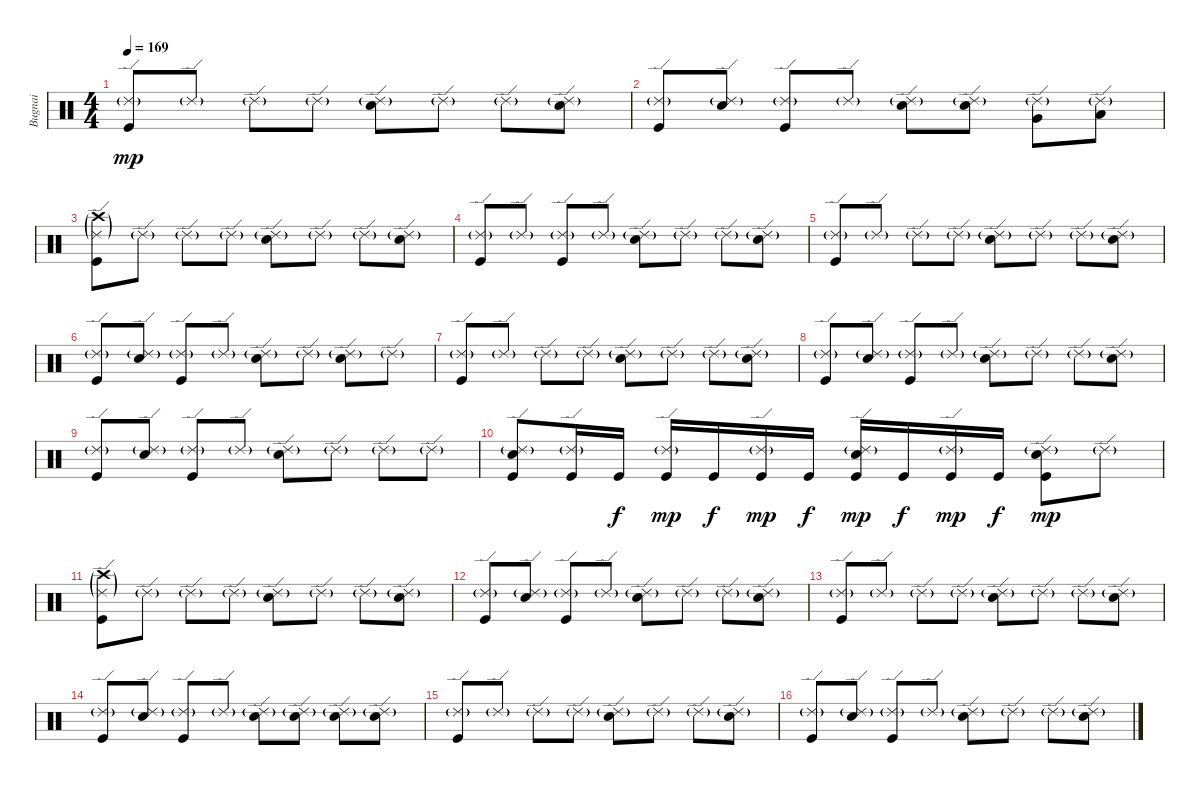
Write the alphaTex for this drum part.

\track ("Bugnai" "Bugnai") {instrument percussion}
\staff {score}
\articulation defaults
\ts (4 4)
\tempo 169
\clef neutral
\ks c
("Ride (edge) 2"{g} "Kick (hit)").8{dy mp} "Ride (edge) 2"{g}.8 "Ride (edge) 2"{g}.8 "Ride (edge) 2"{g}.8 ("Ride (edge) 2"{g} "Snare (hit) 2").8 "Ride (edge) 2"{g}.8 "Ride (edge) 2"{g}.8 ("Ride (edge) 2"{g} "Snare (hit) 2").8 |
("Ride (edge) 2"{g} "Kick (hit)").8 ("Ride (edge) 2"{g} "Snare (hit) 2").8 ("Ride (edge) 2"{g} "Kick (hit)").8 "Ride (edge) 2"{g}.8 ("Ride (edge) 2"{g} "Snare (hit) 2").8 ("Ride (edge) 2"{g} "Snare (hit) 2").8 ("Ride (edge) 2"{g} "Very Low Tom (hit)").8 ("Ride (edge) 2"{g} "Low Floor Tom (hit)").8 |
("Ride (edge) 2"{g} "Crash high (hit)"{g} "Kick (hit)").8 "Ride (edge) 2"{g}.8 "Ride (edge) 2"{g}.8 "Ride (edge) 2"{g}.8 ("Ride (edge) 2"{g} "Snare (hit) 2").8 "Ride (edge) 2"{g}.8 "Ride (edge) 2"{g}.8 ("Ride (edge) 2"{g} "Snare (hit) 2").8 |
("Ride (edge) 2"{g} "Kick (hit)").8 "Ride (edge) 2"{g}.8 ("Ride (edge) 2"{g} "Kick (hit)").8 "Ride (edge) 2"{g}.8 ("Ride (edge) 2"{g} "Snare (hit) 2").8 "Ride (edge) 2"{g}.8 "Ride (edge) 2"{g}.8 ("Ride (edge) 2"{g} "Snare (hit) 2").8 |
("Ride (edge) 2"{g} "Kick (hit)").8 "Ride (edge) 2"{g}.8 "Ride (edge) 2"{g}.8 "Ride (edge) 2"{g}.8 ("Ride (edge) 2"{g} "Snare (hit) 2").8 "Ride (edge) 2"{g}.8 "Ride (edge) 2"{g}.8 ("Ride (edge) 2"{g} "Snare (hit) 2").8 |
("Ride (edge) 2"{g} "Kick (hit)").8 ("Ride (edge) 2"{g} "Snare (hit) 2").8 ("Ride (edge) 2"{g} "Kick (hit)").8 "Ride (edge) 2"{g}.8 ("Ride (edge) 2"{g} "Snare (hit) 2").8 "Ride (edge) 2"{g}.8 ("Ride (edge) 2"{g} "Snare (hit) 2").8 "Ride (edge) 2"{g}.8 |
("Ride (edge) 2"{g} "Kick (hit)").8 "Ride (edge) 2"{g}.8 "Ride (edge) 2"{g}.8 "Ride (edge) 2"{g}.8 ("Ride (edge) 2"{g} "Snare (hit) 2").8 "Ride (edge) 2"{g}.8 "Ride (edge) 2"{g}.8 ("Ride (edge) 2"{g} "Snare (hit) 2").8 |
("Ride (edge) 2"{g} "Kick (hit)").8 ("Ride (edge) 2"{g} "Snare (hit) 2").8 ("Ride (edge) 2"{g} "Kick (hit)").8 "Ride (edge) 2"{g}.8 ("Ride (edge) 2"{g} "Snare (hit) 2").8 "Ride (edge) 2"{g}.8 "Ride (edge) 2"{g}.8 ("Ride (edge) 2"{g} "Snare (hit) 2").8 |
("Ride (edge) 2"{g} "Kick (hit)").8 ("Ride (edge) 2"{g} "Snare (hit) 2").8 ("Ride (edge) 2"{g} "Kick (hit)").8 "Ride (edge) 2"{g}.8 ("Ride (edge) 2"{g} "Snare (hit) 2").8 "Ride (edge) 2"{g}.8 "Ride (edge) 2"{g}.8 "Ride (edge) 2"{g}.8 |
("Ride (edge) 2"{g} "Snare (hit) 2" "Kick (hit)").8 ("Ride (edge) 2"{g} "Kick (hit)").16 "Kick (hit)".16{dy f} ("Ride (edge) 2"{g} "Kick (hit)").16{dy mp} "Kick (hit)".16{dy f} ("Ride (edge) 2"{g} "Kick (hit)").16{dy mp} "Kick (hit)".16{dy f} ("Ride (edge) 2"{g} "Snare (hit) 2" "Kick (hit)").16{dy mp} "Kick (hit)".16{dy f} ("Ride (edge) 2"{g} "Kick (hit)").16{dy mp} "Kick (hit)".16{dy f} ("Ride (edge) 2"{g} "Snare (hit) 2" "Kick (hit)").8{dy mp} "Ride (edge) 2"{g}.8 |
("Ride (edge) 2"{g} "Crash high (hit)"{g} "Kick (hit)").8 "Ride (edge) 2"{g}.8 "Ride (edge) 2"{g}.8 "Ride (edge) 2"{g}.8 ("Ride (edge) 2"{g} "Snare (hit) 2").8 "Ride (edge) 2"{g}.8 "Ride (edge) 2"{g}.8 ("Ride (edge) 2"{g} "Snare (hit) 2").8 |
("Ride (edge) 2"{g} "Kick (hit)").8 ("Ride (edge) 2"{g} "Snare (hit) 2").8 ("Ride (edge) 2"{g} "Kick (hit)").8 "Ride (edge) 2"{g}.8 ("Ride (edge) 2"{g} "Snare (hit) 2").8 "Ride (edge) 2"{g}.8 "Ride (edge) 2"{g}.8 ("Ride (edge) 2"{g} "Snare (hit) 2").8 |
("Ride (edge) 2"{g} "Kick (hit)").8 "Ride (edge) 2"{g}.8 "Ride (edge) 2"{g}.8 "Ride (edge) 2"{g}.8 ("Ride (edge) 2"{g} "Snare (hit) 2").8 "Ride (edge) 2"{g}.8 "Ride (edge) 2"{g}.8 ("Ride (edge) 2"{g} "Snare (hit) 2").8 |
("Ride (edge) 2"{g} "Kick (hit)").8 ("Ride (edge) 2"{g} "Snare (hit) 2").8 ("Ride (edge) 2"{g} "Kick (hit)").8 "Ride (edge) 2"{g}.8 ("Ride (edge) 2"{g} "Snare (hit) 2").8 ("Ride (edge) 2"{g} "Snare (hit) 2").8 ("Ride (edge) 2"{g} "Snare (hit) 2").8 ("Ride (edge) 2"{g} "Snare (hit) 2").8 |
("Ride (edge) 2"{g} "Kick (hit)").8 "Ride (edge) 2"{g}.8 "Ride (edge) 2"{g}.8 "Ride (edge) 2"{g}.8 ("Ride (edge) 2"{g} "Snare (hit) 2").8 "Ride (edge) 2"{g}.8 "Ride (edge) 2"{g}.8 ("Ride (edge) 2"{g} "Snare (hit) 2").8 |
("Ride (edge) 2"{g} "Kick (hit)").8 ("Ride (edge) 2"{g} "Snare (hit) 2").8 ("Ride (edge) 2"{g} "Kick (hit)").8 "Ride (edge) 2"{g}.8 ("Ride (edge) 2"{g} "Snare (hit) 2").8 "Ride (edge) 2"{g}.8 "Ride (edge) 2"{g}.8 ("Ride (edge) 2"{g} "Snare (hit) 2").8
